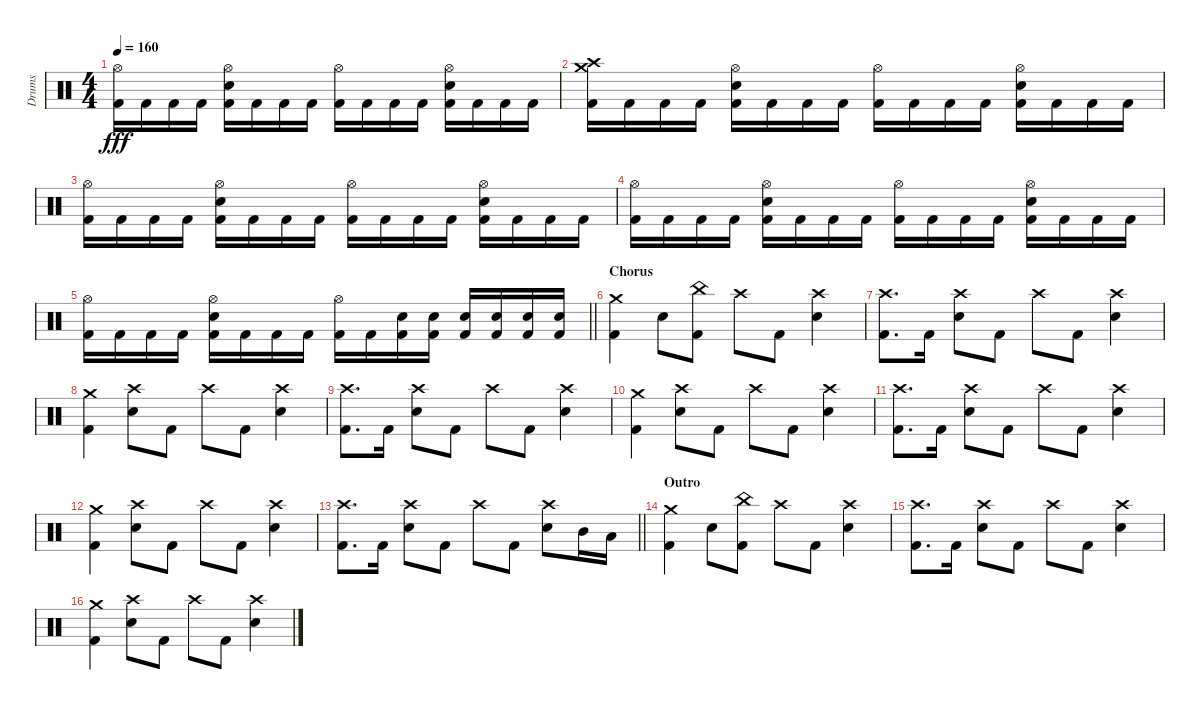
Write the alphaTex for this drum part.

\track ("Drums" "Drums") {instrument percussion}
\staff {score}
\articulation defaults
\ts (4 4)
\tempo 160
\clef neutral
\ks c
("Hi-Hat (open)" "Kick (hit) 2").16{dy fff} "Kick (hit) 2".16 "Kick (hit) 2".16 "Kick (hit) 2".16 ("Snare (hit) 2" "Hi-Hat (open)" "Kick (hit) 2").16 "Kick (hit) 2".16 "Kick (hit) 2".16 "Kick (hit) 2".16 ("Hi-Hat (open)" "Kick (hit) 2").16 "Kick (hit) 2".16 "Kick (hit) 2".16 "Kick (hit) 2".16 ("Snare (hit) 2" "Hi-Hat (open)" "Kick (hit) 2").16 "Kick (hit) 2".16 "Kick (hit) 2".16 "Kick (hit) 2".16 |
("Crash high (hit)" "Crash medium (hit)" "Kick (hit) 2").16 "Kick (hit) 2".16 "Kick (hit) 2".16 "Kick (hit) 2".16 ("Snare (hit) 2" "Hi-Hat (open)" "Kick (hit) 2").16 "Kick (hit) 2".16 "Kick (hit) 2".16 "Kick (hit) 2".16 ("Hi-Hat (open)" "Kick (hit) 2").16 "Kick (hit) 2".16 "Kick (hit) 2".16 "Kick (hit) 2".16 ("Snare (hit) 2" "Hi-Hat (open)" "Kick (hit) 2").16 "Kick (hit) 2".16 "Kick (hit) 2".16 "Kick (hit) 2".16 |
("Hi-Hat (open)" "Kick (hit) 2").16 "Kick (hit) 2".16 "Kick (hit) 2".16 "Kick (hit) 2".16 ("Snare (hit) 2" "Hi-Hat (open)" "Kick (hit) 2").16 "Kick (hit) 2".16 "Kick (hit) 2".16 "Kick (hit) 2".16 ("Hi-Hat (open)" "Kick (hit) 2").16 "Kick (hit) 2".16 "Kick (hit) 2".16 "Kick (hit) 2".16 ("Snare (hit) 2" "Hi-Hat (open)" "Kick (hit) 2").16 "Kick (hit) 2".16 "Kick (hit) 2".16 "Kick (hit) 2".16 |
("Hi-Hat (open)" "Kick (hit) 2").16 "Kick (hit) 2".16 "Kick (hit) 2".16 "Kick (hit) 2".16 ("Snare (hit) 2" "Hi-Hat (open)" "Kick (hit) 2").16 "Kick (hit) 2".16 "Kick (hit) 2".16 "Kick (hit) 2".16 ("Hi-Hat (open)" "Kick (hit) 2").16 "Kick (hit) 2".16 "Kick (hit) 2".16 "Kick (hit) 2".16 ("Snare (hit) 2" "Hi-Hat (open)" "Kick (hit) 2").16 "Kick (hit) 2".16 "Kick (hit) 2".16 "Kick (hit) 2".16 |
\barLineRight lightlight
("Hi-Hat (open)" "Kick (hit) 2").16 "Kick (hit) 2".16 "Kick (hit) 2".16 "Kick (hit) 2".16 ("Snare (hit) 2" "Hi-Hat (open)" "Kick (hit) 2").16 "Kick (hit) 2".16 "Kick (hit) 2".16 "Kick (hit) 2".16 ("Hi-Hat (open)" "Kick (hit) 2").16 "Kick (hit) 2".16 ("Snare (hit) 2" "Kick (hit) 2").16 ("Snare (hit) 2" "Kick (hit) 2").16 ("Snare (hit) 2" "Kick (hit) 2").16 ("Snare (hit) 2" "Kick (hit) 2").16 ("Snare (hit) 2" "Kick (hit) 2").16 ("Snare (hit) 2" "Kick (hit) 2").16 |
\section ("" "Chorus")
("Crash medium (hit)" "Kick (hit) 2").4 "Snare (hit) 2".8 ("China (hit)" "Kick (hit) 2").8 "Crash high (hit)".8 "Kick (hit) 2".8 ("Crash high (hit)" "Snare (hit) 2").4 |
("Crash high (hit)" "Kick (hit) 2").8{d} "Kick (hit) 2".16 ("Crash high (hit)" "Snare (hit) 2").8 "Kick (hit) 2".8 "Crash high (hit)".8 "Kick (hit) 2".8 ("Crash high (hit)" "Snare (hit) 2").4 |
("Crash medium (hit)" "Kick (hit) 2").4 ("Crash high (hit)" "Snare (hit) 2").8 "Kick (hit) 2".8 "Crash high (hit)".8 "Kick (hit) 2".8 ("Crash high (hit)" "Snare (hit) 2").4 |
("Crash high (hit)" "Kick (hit) 2").8{d} "Kick (hit) 2".16 ("Crash high (hit)" "Snare (hit) 2").8 "Kick (hit) 2".8 "Crash high (hit)".8 "Kick (hit) 2".8 ("Crash high (hit)" "Snare (hit) 2").4 |
("Crash medium (hit)" "Kick (hit) 2").4 ("Crash high (hit)" "Snare (hit) 2").8 "Kick (hit) 2".8 "Crash high (hit)".8 "Kick (hit) 2".8 ("Crash high (hit)" "Snare (hit) 2").4 |
("Crash high (hit)" "Kick (hit) 2").8{d} "Kick (hit) 2".16 ("Crash high (hit)" "Snare (hit) 2").8 "Kick (hit) 2".8 "Crash high (hit)".8 "Kick (hit) 2".8 ("Crash high (hit)" "Snare (hit) 2").4 |
("Crash medium (hit)" "Kick (hit) 2").4 ("Crash high (hit)" "Snare (hit) 2").8 "Kick (hit) 2".8 "Crash high (hit)".8 "Kick (hit) 2".8 ("Crash high (hit)" "Snare (hit) 2").4 |
\barLineRight lightlight
("Crash high (hit)" "Kick (hit) 2").8{d} "Kick (hit) 2".16 ("Crash high (hit)" "Snare (hit) 2").8 "Kick (hit) 2".8 "Crash high (hit)".8 "Kick (hit) 2".8 ("Crash high (hit)" "Snare (hit) 2").8 "Mid Tom (hit)".16 "Low Tom (hit)".16 |
\section ("" "Outro")
("Crash medium (hit)" "Kick (hit) 2").4 "Snare (hit) 2".8 ("China (hit)" "Kick (hit) 2").8 "Crash high (hit)".8 "Kick (hit) 2".8 ("Crash high (hit)" "Snare (hit) 2").4 |
("Crash high (hit)" "Kick (hit) 2").8{d} "Kick (hit) 2".16 ("Crash high (hit)" "Snare (hit) 2").8 "Kick (hit) 2".8 "Crash high (hit)".8 "Kick (hit) 2".8 ("Crash high (hit)" "Snare (hit) 2").4 |
("Crash medium (hit)" "Kick (hit) 2").4 ("Crash high (hit)" "Snare (hit) 2").8 "Kick (hit) 2".8 "Crash high (hit)".8 "Kick (hit) 2".8 ("Crash high (hit)" "Snare (hit) 2").4
